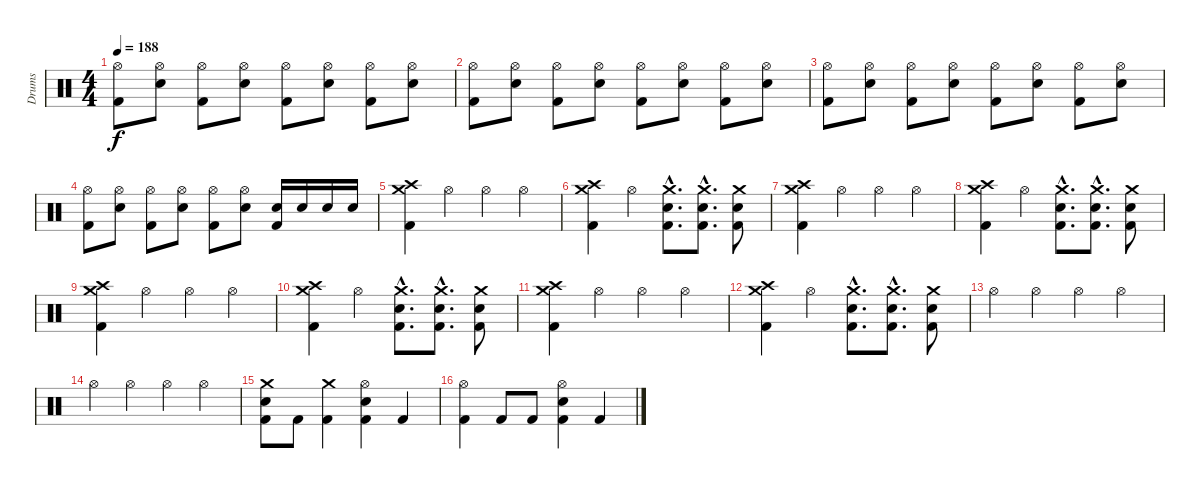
\track ("Drums" "Drums") {instrument percussion}
\staff {score}
\articulation defaults
\ts (4 4)
\tempo 188
\clef neutral
\ks c
("Hi-Hat (open)" "Kick (hit) 2").8{dy f} ("Hi-Hat (open)" "Snare (hit) 2").8 ("Hi-Hat (open)" "Kick (hit) 2").8 ("Hi-Hat (open)" "Snare (hit) 2").8 ("Hi-Hat (open)" "Kick (hit) 2").8 ("Hi-Hat (open)" "Snare (hit) 2").8 ("Hi-Hat (open)" "Kick (hit) 2").8 ("Hi-Hat (open)" "Snare (hit) 2").8 |
("Hi-Hat (open)" "Kick (hit) 2").8 ("Hi-Hat (open)" "Snare (hit) 2").8 ("Hi-Hat (open)" "Kick (hit) 2").8 ("Hi-Hat (open)" "Snare (hit) 2").8 ("Hi-Hat (open)" "Kick (hit) 2").8 ("Hi-Hat (open)" "Snare (hit) 2").8 ("Hi-Hat (open)" "Kick (hit) 2").8 ("Hi-Hat (open)" "Snare (hit) 2").8 |
("Hi-Hat (open)" "Kick (hit) 2").8 ("Hi-Hat (open)" "Snare (hit) 2").8 ("Hi-Hat (open)" "Kick (hit) 2").8 ("Hi-Hat (open)" "Snare (hit) 2").8 ("Hi-Hat (open)" "Kick (hit) 2").8 ("Hi-Hat (open)" "Snare (hit) 2").8 ("Hi-Hat (open)" "Kick (hit) 2").8 ("Hi-Hat (open)" "Snare (hit) 2").8 |
("Hi-Hat (open)" "Kick (hit) 2").8 ("Hi-Hat (open)" "Snare (hit) 2").8 ("Hi-Hat (open)" "Kick (hit) 2").8 ("Hi-Hat (open)" "Snare (hit) 2").8 ("Hi-Hat (open)" "Kick (hit) 2").8 ("Hi-Hat (open)" "Snare (hit) 2").8 ("Snare (hit) 2" "Kick (hit) 2").16 "Snare (hit) 2".16 "Snare (hit) 2".16 "Snare (hit) 2".16 |
("Crash high (hit)" "Crash medium (hit)" "Kick (hit) 2").4 "Hi-Hat (open)".4 "Hi-Hat (open)".4 "Hi-Hat (open)".4 |
("Crash high (hit)" "Crash medium (hit)" "Kick (hit) 2").4 "Hi-Hat (open)".4 ("Crash medium (hit)"{hac} "Snare (hit) 2"{hac} "Kick (hit) 2"{hac}).8{d} ("Crash medium (hit)"{hac} "Snare (hit) 2"{hac} "Kick (hit) 2"{hac}).8{d} ("Crash medium (hit)" "Snare (hit) 2" "Kick (hit) 2").8 |
("Crash high (hit)" "Crash medium (hit)" "Kick (hit) 2").4 "Hi-Hat (open)".4 "Hi-Hat (open)".4 "Hi-Hat (open)".4 |
("Crash high (hit)" "Crash medium (hit)" "Kick (hit) 2").4 "Hi-Hat (open)".4 ("Crash medium (hit)"{hac} "Snare (hit) 2"{hac} "Kick (hit) 2"{hac}).8{d} ("Crash medium (hit)"{hac} "Snare (hit) 2"{hac} "Kick (hit) 2"{hac}).8{d} ("Crash medium (hit)" "Snare (hit) 2" "Kick (hit) 2").8 |
("Crash high (hit)" "Crash medium (hit)" "Kick (hit) 2").4 "Hi-Hat (open)".4 "Hi-Hat (open)".4 "Hi-Hat (open)".4 |
("Crash high (hit)" "Crash medium (hit)" "Kick (hit) 2").4 "Hi-Hat (open)".4 ("Crash medium (hit)"{hac} "Snare (hit) 2"{hac} "Kick (hit) 2"{hac}).8{d} ("Crash medium (hit)"{hac} "Snare (hit) 2"{hac} "Kick (hit) 2"{hac}).8{d} ("Crash medium (hit)" "Snare (hit) 2" "Kick (hit) 2").8 |
("Crash high (hit)" "Crash medium (hit)" "Kick (hit) 2").4 "Hi-Hat (open)".4 "Hi-Hat (open)".4 "Hi-Hat (open)".4 |
("Crash high (hit)" "Crash medium (hit)" "Kick (hit) 2").4 "Hi-Hat (open)".4 ("Crash medium (hit)"{hac} "Snare (hit) 2"{hac} "Kick (hit) 2"{hac}).8{d} ("Crash medium (hit)"{hac} "Snare (hit) 2"{hac} "Kick (hit) 2"{hac}).8{d} ("Crash medium (hit)" "Snare (hit) 2" "Kick (hit) 2").8 |
"Hi-Hat (open)".4 "Hi-Hat (open)".4 "Hi-Hat (open)".4 "Hi-Hat (open)".4 |
"Hi-Hat (open)".4 "Hi-Hat (open)".4 "Hi-Hat (open)".4 "Hi-Hat (open)".4 |
("Crash medium (hit)" "Snare (hit) 2" "Kick (hit) 2").8 "Kick (hit) 2".8 ("Crash medium (hit)" "Kick (hit) 2").4 ("Hi-Hat (open)" "Snare (hit) 2" "Kick (hit) 2").4 "Kick (hit) 2".4 |
("Hi-Hat (open)" "Kick (hit) 2").4 "Kick (hit) 2".8 "Kick (hit) 2".8 ("Hi-Hat (open)" "Snare (hit) 2" "Kick (hit) 2").4 "Kick (hit) 2".4
